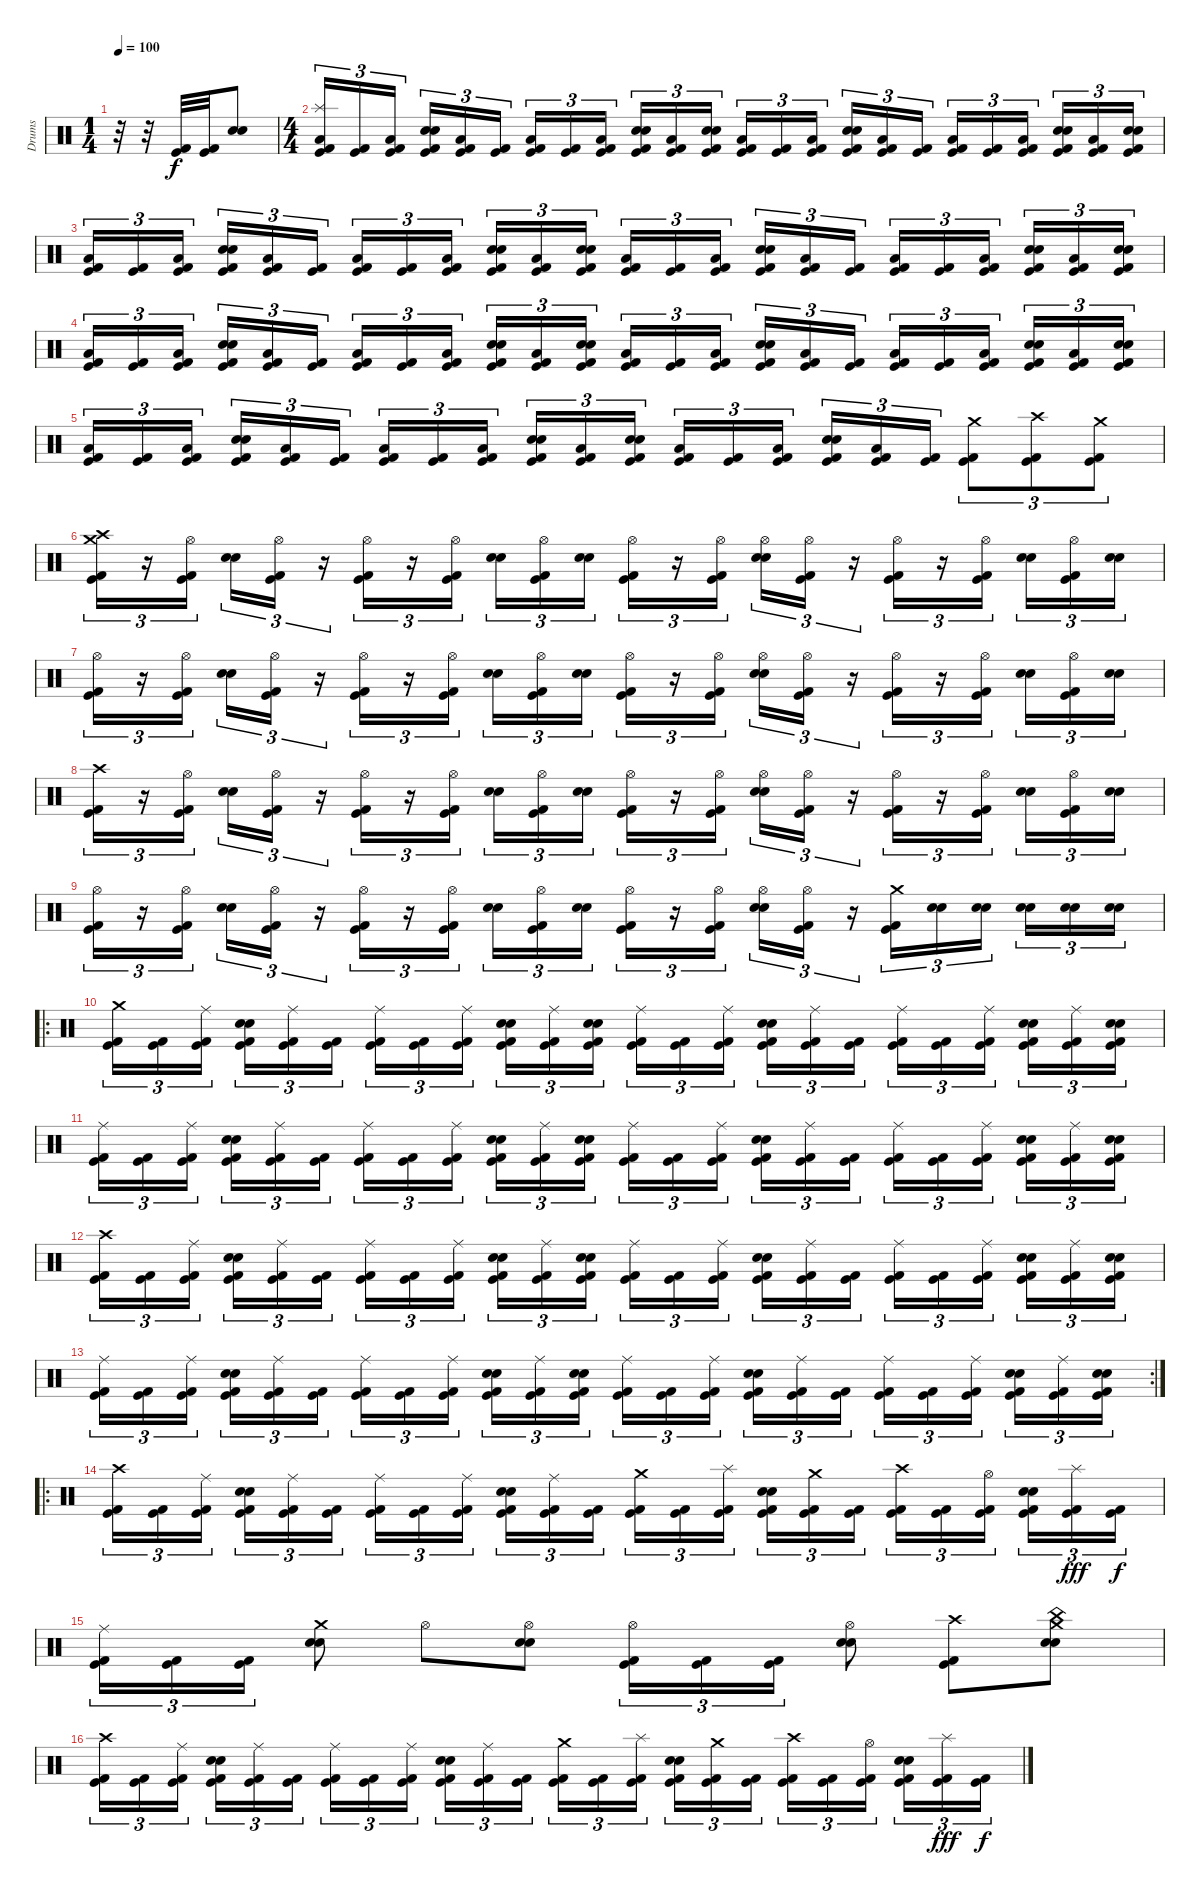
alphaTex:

\track ("Drums" "Drums") {instrument percussion}
\staff {score}
\articulation defaults
\ts (1 4)
\tempo 100
\clef neutral
\ks c
r.32{dy f} r.32 ("Kick (hit)" "Kick (hit) 2").32 ("Kick (hit)" "Kick (hit) 2").32 ("Electric Snare (hit)" "Snare (hit) 2").8 |
\ts (4 4)
("Splash (hit)" "Low Floor Tom (hit)" "Kick (hit)" "Kick (hit) 2").16{tu (3 2)} ("Kick (hit)" "Kick (hit) 2").16{tu (3 2)} ("Low Floor Tom (hit)" "Kick (hit)" "Kick (hit) 2").16{tu (3 2) beam splitsecondary} ("Electric Snare (hit)" "Snare (hit) 2" "Kick (hit)" "Kick (hit) 2").16{tu (3 2)} ("Low Floor Tom (hit)" "Kick (hit)" "Kick (hit) 2").16{tu (3 2)} ("Kick (hit)" "Kick (hit) 2").16{tu (3 2)} ("Low Floor Tom (hit)" "Kick (hit)" "Kick (hit) 2").16{tu (3 2)} ("Kick (hit)" "Kick (hit) 2").16{tu (3 2)} ("Low Floor Tom (hit)" "Kick (hit)" "Kick (hit) 2").16{tu (3 2) beam splitsecondary} ("Electric Snare (hit)" "Snare (hit) 2" "Kick (hit)" "Kick (hit) 2").16{tu (3 2)} ("Low Floor Tom (hit)" "Kick (hit)" "Kick (hit) 2").16{tu (3 2)} ("Electric Snare (hit)" "Snare (hit) 2" "Kick (hit)" "Kick (hit) 2").16{tu (3 2)} ("Low Floor Tom (hit)" "Kick (hit)" "Kick (hit) 2").16{tu (3 2)} ("Kick (hit)" "Kick (hit) 2").16{tu (3 2)} ("Low Floor Tom (hit)" "Kick (hit)" "Kick (hit) 2").16{tu (3 2) beam splitsecondary} ("Electric Snare (hit)" "Snare (hit) 2" "Kick (hit)" "Kick (hit) 2").16{tu (3 2)} ("Low Floor Tom (hit)" "Kick (hit)" "Kick (hit) 2").16{tu (3 2)} ("Kick (hit)" "Kick (hit) 2").16{tu (3 2)} ("Low Floor Tom (hit)" "Kick (hit)" "Kick (hit) 2").16{tu (3 2)} ("Kick (hit)" "Kick (hit) 2").16{tu (3 2)} ("Low Floor Tom (hit)" "Kick (hit)" "Kick (hit) 2").16{tu (3 2) beam splitsecondary} ("Electric Snare (hit)" "Snare (hit) 2" "Kick (hit)" "Kick (hit) 2").16{tu (3 2)} ("Low Floor Tom (hit)" "Kick (hit)" "Kick (hit) 2").16{tu (3 2)} ("Electric Snare (hit)" "Snare (hit) 2" "Kick (hit)" "Kick (hit) 2").16{tu (3 2)} |
("Low Floor Tom (hit)" "Kick (hit)" "Kick (hit) 2").16{tu (3 2)} ("Kick (hit)" "Kick (hit) 2").16{tu (3 2)} ("Low Floor Tom (hit)" "Kick (hit)" "Kick (hit) 2").16{tu (3 2) beam splitsecondary} ("Electric Snare (hit)" "Snare (hit) 2" "Kick (hit)" "Kick (hit) 2").16{tu (3 2)} ("Low Floor Tom (hit)" "Kick (hit)" "Kick (hit) 2").16{tu (3 2)} ("Kick (hit)" "Kick (hit) 2").16{tu (3 2)} ("Low Floor Tom (hit)" "Kick (hit)" "Kick (hit) 2").16{tu (3 2)} ("Kick (hit)" "Kick (hit) 2").16{tu (3 2)} ("Low Floor Tom (hit)" "Kick (hit)" "Kick (hit) 2").16{tu (3 2) beam splitsecondary} ("Electric Snare (hit)" "Snare (hit) 2" "Kick (hit)" "Kick (hit) 2").16{tu (3 2)} ("Low Floor Tom (hit)" "Kick (hit)" "Kick (hit) 2").16{tu (3 2)} ("Electric Snare (hit)" "Snare (hit) 2" "Kick (hit)" "Kick (hit) 2").16{tu (3 2)} ("Low Floor Tom (hit)" "Kick (hit)" "Kick (hit) 2").16{tu (3 2)} ("Kick (hit)" "Kick (hit) 2").16{tu (3 2)} ("Low Floor Tom (hit)" "Kick (hit)" "Kick (hit) 2").16{tu (3 2) beam splitsecondary} ("Electric Snare (hit)" "Snare (hit) 2" "Kick (hit)" "Kick (hit) 2").16{tu (3 2)} ("Low Floor Tom (hit)" "Kick (hit)" "Kick (hit) 2").16{tu (3 2)} ("Kick (hit)" "Kick (hit) 2").16{tu (3 2)} ("Low Floor Tom (hit)" "Kick (hit)" "Kick (hit) 2").16{tu (3 2)} ("Kick (hit)" "Kick (hit) 2").16{tu (3 2)} ("Low Floor Tom (hit)" "Kick (hit)" "Kick (hit) 2").16{tu (3 2) beam splitsecondary} ("Electric Snare (hit)" "Snare (hit) 2" "Kick (hit)" "Kick (hit) 2").16{tu (3 2)} ("Low Floor Tom (hit)" "Kick (hit)" "Kick (hit) 2").16{tu (3 2)} ("Electric Snare (hit)" "Snare (hit) 2" "Kick (hit)" "Kick (hit) 2").16{tu (3 2)} |
("Low Floor Tom (hit)" "Kick (hit)" "Kick (hit) 2").16{tu (3 2)} ("Kick (hit)" "Kick (hit) 2").16{tu (3 2)} ("Low Floor Tom (hit)" "Kick (hit)" "Kick (hit) 2").16{tu (3 2) beam splitsecondary} ("Electric Snare (hit)" "Snare (hit) 2" "Kick (hit)" "Kick (hit) 2").16{tu (3 2)} ("Low Floor Tom (hit)" "Kick (hit)" "Kick (hit) 2").16{tu (3 2)} ("Kick (hit)" "Kick (hit) 2").16{tu (3 2)} ("Low Floor Tom (hit)" "Kick (hit)" "Kick (hit) 2").16{tu (3 2)} ("Kick (hit)" "Kick (hit) 2").16{tu (3 2)} ("Low Floor Tom (hit)" "Kick (hit)" "Kick (hit) 2").16{tu (3 2) beam splitsecondary} ("Electric Snare (hit)" "Snare (hit) 2" "Kick (hit)" "Kick (hit) 2").16{tu (3 2)} ("Low Floor Tom (hit)" "Kick (hit)" "Kick (hit) 2").16{tu (3 2)} ("Electric Snare (hit)" "Snare (hit) 2" "Kick (hit)" "Kick (hit) 2").16{tu (3 2)} ("Low Floor Tom (hit)" "Kick (hit)" "Kick (hit) 2").16{tu (3 2)} ("Kick (hit)" "Kick (hit) 2").16{tu (3 2)} ("Low Floor Tom (hit)" "Kick (hit)" "Kick (hit) 2").16{tu (3 2) beam splitsecondary} ("Electric Snare (hit)" "Snare (hit) 2" "Kick (hit)" "Kick (hit) 2").16{tu (3 2)} ("Low Floor Tom (hit)" "Kick (hit)" "Kick (hit) 2").16{tu (3 2)} ("Kick (hit)" "Kick (hit) 2").16{tu (3 2)} ("Low Floor Tom (hit)" "Kick (hit)" "Kick (hit) 2").16{tu (3 2)} ("Kick (hit)" "Kick (hit) 2").16{tu (3 2)} ("Low Floor Tom (hit)" "Kick (hit)" "Kick (hit) 2").16{tu (3 2) beam splitsecondary} ("Electric Snare (hit)" "Snare (hit) 2" "Kick (hit)" "Kick (hit) 2").16{tu (3 2)} ("Low Floor Tom (hit)" "Kick (hit)" "Kick (hit) 2").16{tu (3 2)} ("Electric Snare (hit)" "Snare (hit) 2" "Kick (hit)" "Kick (hit) 2").16{tu (3 2)} |
("Low Floor Tom (hit)" "Kick (hit)" "Kick (hit) 2").16{tu (3 2)} ("Kick (hit)" "Kick (hit) 2").16{tu (3 2)} ("Low Floor Tom (hit)" "Kick (hit)" "Kick (hit) 2").16{tu (3 2) beam splitsecondary} ("Electric Snare (hit)" "Snare (hit) 2" "Kick (hit)" "Kick (hit) 2").16{tu (3 2)} ("Low Floor Tom (hit)" "Kick (hit)" "Kick (hit) 2").16{tu (3 2)} ("Kick (hit)" "Kick (hit) 2").16{tu (3 2)} ("Low Floor Tom (hit)" "Kick (hit)" "Kick (hit) 2").16{tu (3 2)} ("Kick (hit)" "Kick (hit) 2").16{tu (3 2)} ("Low Floor Tom (hit)" "Kick (hit)" "Kick (hit) 2").16{tu (3 2) beam splitsecondary} ("Electric Snare (hit)" "Snare (hit) 2" "Kick (hit)" "Kick (hit) 2").16{tu (3 2)} ("Low Floor Tom (hit)" "Kick (hit)" "Kick (hit) 2").16{tu (3 2)} ("Electric Snare (hit)" "Snare (hit) 2" "Kick (hit)" "Kick (hit) 2").16{tu (3 2)} ("Low Floor Tom (hit)" "Kick (hit)" "Kick (hit) 2").16{tu (3 2)} ("Kick (hit)" "Kick (hit) 2").16{tu (3 2)} ("Low Floor Tom (hit)" "Kick (hit)" "Kick (hit) 2").16{tu (3 2) beam splitsecondary} ("Electric Snare (hit)" "Snare (hit) 2" "Kick (hit)" "Kick (hit) 2").16{tu (3 2)} ("Low Floor Tom (hit)" "Kick (hit)" "Kick (hit) 2").16{tu (3 2)} ("Kick (hit)" "Kick (hit) 2").16{tu (3 2)} ("Crash medium (hit)" "Kick (hit)" "Kick (hit) 2").8{tu (3 2)} ("Crash high (hit)" "Kick (hit)" "Kick (hit) 2").8{tu (3 2)} ("Crash medium (hit)" "Kick (hit)" "Kick (hit) 2").8{tu (3 2)} |
("Crash high (hit)" "Crash medium (hit)" "Kick (hit)" "Kick (hit) 2").16{tu (3 2)} r.16{tu (3 2)} ("Hi-Hat (open)" "Kick (hit)" "Kick (hit) 2").16{tu (3 2) beam splitsecondary} ("Electric Snare (hit)" "Snare (hit) 2").16{tu (3 2)} ("Hi-Hat (open)" "Kick (hit)" "Kick (hit) 2").16{tu (3 2)} r.16{tu (3 2)} ("Hi-Hat (open)" "Kick (hit)" "Kick (hit) 2").16{tu (3 2)} r.16{tu (3 2)} ("Hi-Hat (open)" "Kick (hit)" "Kick (hit) 2").16{tu (3 2) beam splitsecondary} ("Electric Snare (hit)" "Snare (hit) 2").16{tu (3 2)} ("Hi-Hat (open)" "Kick (hit)" "Kick (hit) 2").16{tu (3 2)} ("Electric Snare (hit)" "Snare (hit) 2").16{tu (3 2)} ("Hi-Hat (open)" "Kick (hit)" "Kick (hit) 2").16{tu (3 2)} r.16{tu (3 2)} ("Hi-Hat (open)" "Kick (hit) 2" "Kick (hit)").16{tu (3 2) beam splitsecondary} ("Hi-Hat (open)" "Electric Snare (hit)" "Snare (hit) 2").16{tu (3 2)} ("Hi-Hat (open)" "Kick (hit)" "Kick (hit) 2").16{tu (3 2)} r.16{tu (3 2)} ("Hi-Hat (open)" "Kick (hit)" "Kick (hit) 2").16{tu (3 2)} r.16{tu (3 2)} ("Hi-Hat (open)" "Kick (hit)" "Kick (hit) 2").16{tu (3 2) beam splitsecondary} ("Electric Snare (hit)" "Snare (hit) 2").16{tu (3 2)} ("Hi-Hat (open)" "Kick (hit)" "Kick (hit) 2").16{tu (3 2)} ("Electric Snare (hit)" "Snare (hit) 2").16{tu (3 2)} |
("Hi-Hat (open)" "Kick (hit)" "Kick (hit) 2").16{tu (3 2)} r.16{tu (3 2)} ("Hi-Hat (open)" "Kick (hit)" "Kick (hit) 2").16{tu (3 2) beam splitsecondary} ("Electric Snare (hit)" "Snare (hit) 2").16{tu (3 2)} ("Hi-Hat (open)" "Kick (hit)" "Kick (hit) 2").16{tu (3 2)} r.16{tu (3 2)} ("Hi-Hat (open)" "Kick (hit)" "Kick (hit) 2").16{tu (3 2)} r.16{tu (3 2)} ("Hi-Hat (open)" "Kick (hit)" "Kick (hit) 2").16{tu (3 2) beam splitsecondary} ("Electric Snare (hit)" "Snare (hit) 2").16{tu (3 2)} ("Hi-Hat (open)" "Kick (hit)" "Kick (hit) 2").16{tu (3 2)} ("Electric Snare (hit)" "Snare (hit) 2").16{tu (3 2)} ("Hi-Hat (open)" "Kick (hit)" "Kick (hit) 2").16{tu (3 2)} r.16{tu (3 2)} ("Hi-Hat (open)" "Kick (hit) 2" "Kick (hit)").16{tu (3 2) beam splitsecondary} ("Hi-Hat (open)" "Electric Snare (hit)" "Snare (hit) 2").16{tu (3 2)} ("Hi-Hat (open)" "Kick (hit)" "Kick (hit) 2").16{tu (3 2)} r.16{tu (3 2)} ("Hi-Hat (open)" "Kick (hit)" "Kick (hit) 2").16{tu (3 2)} r.16{tu (3 2)} ("Hi-Hat (open)" "Kick (hit)" "Kick (hit) 2").16{tu (3 2) beam splitsecondary} ("Electric Snare (hit)" "Snare (hit) 2").16{tu (3 2)} ("Hi-Hat (open)" "Kick (hit)" "Kick (hit) 2").16{tu (3 2)} ("Electric Snare (hit)" "Snare (hit) 2").16{tu (3 2)} |
("Crash high (hit)" "Kick (hit)" "Kick (hit) 2").16{tu (3 2)} r.16{tu (3 2)} ("Hi-Hat (open)" "Kick (hit)" "Kick (hit) 2").16{tu (3 2) beam splitsecondary} ("Electric Snare (hit)" "Snare (hit) 2").16{tu (3 2)} ("Hi-Hat (open)" "Kick (hit)" "Kick (hit) 2").16{tu (3 2)} r.16{tu (3 2)} ("Hi-Hat (open)" "Kick (hit)" "Kick (hit) 2").16{tu (3 2)} r.16{tu (3 2)} ("Hi-Hat (open)" "Kick (hit)" "Kick (hit) 2").16{tu (3 2) beam splitsecondary} ("Electric Snare (hit)" "Snare (hit) 2").16{tu (3 2)} ("Hi-Hat (open)" "Kick (hit)" "Kick (hit) 2").16{tu (3 2)} ("Electric Snare (hit)" "Snare (hit) 2").16{tu (3 2)} ("Hi-Hat (open)" "Kick (hit)" "Kick (hit) 2").16{tu (3 2)} r.16{tu (3 2)} ("Hi-Hat (open)" "Kick (hit) 2" "Kick (hit)").16{tu (3 2) beam splitsecondary} ("Hi-Hat (open)" "Electric Snare (hit)" "Snare (hit) 2").16{tu (3 2)} ("Hi-Hat (open)" "Kick (hit)" "Kick (hit) 2").16{tu (3 2)} r.16{tu (3 2)} ("Hi-Hat (open)" "Kick (hit)" "Kick (hit) 2").16{tu (3 2)} r.16{tu (3 2)} ("Hi-Hat (open)" "Kick (hit)" "Kick (hit) 2").16{tu (3 2) beam splitsecondary} ("Electric Snare (hit)" "Snare (hit) 2").16{tu (3 2)} ("Hi-Hat (open)" "Kick (hit)" "Kick (hit) 2").16{tu (3 2)} ("Electric Snare (hit)" "Snare (hit) 2").16{tu (3 2)} |
("Hi-Hat (open)" "Kick (hit)" "Kick (hit) 2").16{tu (3 2)} r.16{tu (3 2)} ("Hi-Hat (open)" "Kick (hit)" "Kick (hit) 2").16{tu (3 2) beam splitsecondary} ("Electric Snare (hit)" "Snare (hit) 2").16{tu (3 2)} ("Hi-Hat (open)" "Kick (hit)" "Kick (hit) 2").16{tu (3 2)} r.16{tu (3 2)} ("Hi-Hat (open)" "Kick (hit)" "Kick (hit) 2").16{tu (3 2)} r.16{tu (3 2)} ("Hi-Hat (open)" "Kick (hit)" "Kick (hit) 2").16{tu (3 2) beam splitsecondary} ("Electric Snare (hit)" "Snare (hit) 2").16{tu (3 2)} ("Hi-Hat (open)" "Kick (hit)" "Kick (hit) 2").16{tu (3 2)} ("Electric Snare (hit)" "Snare (hit) 2").16{tu (3 2)} ("Hi-Hat (open)" "Kick (hit)" "Kick (hit) 2").16{tu (3 2)} r.16{tu (3 2)} ("Hi-Hat (open)" "Kick (hit) 2" "Kick (hit)").16{tu (3 2) beam splitsecondary} ("Hi-Hat (open)" "Electric Snare (hit)" "Snare (hit) 2").16{tu (3 2)} ("Hi-Hat (open)" "Kick (hit)" "Kick (hit) 2").16{tu (3 2)} r.16{tu (3 2)} ("Crash medium (hit)" "Kick (hit)" "Kick (hit) 2").16{tu (3 2)} ("Electric Snare (hit)" "Snare (hit) 2").16{tu (3 2)} ("Electric Snare (hit)" "Snare (hit) 2").16{tu (3 2) beam splitsecondary} ("Electric Snare (hit)" "Snare (hit) 2").16{tu (3 2)} ("Electric Snare (hit)" "Snare (hit) 2").16{tu (3 2)} ("Electric Snare (hit)" "Snare (hit) 2").16{tu (3 2)} |
\ro
("Crash medium (hit)" "Kick (hit)" "Kick (hit) 2").16{tu (3 2)} ("Kick (hit)" "Kick (hit) 2").16{tu (3 2)} ("Ride (middle)" "Kick (hit)" "Kick (hit) 2").16{tu (3 2) beam splitsecondary} ("Electric Snare (hit)" "Snare (hit) 2" "Kick (hit)" "Kick (hit) 2").16{tu (3 2)} ("Ride (middle)" "Kick (hit)" "Kick (hit) 2").16{tu (3 2)} ("Kick (hit)" "Kick (hit) 2").16{tu (3 2)} ("Ride (middle)" "Kick (hit)" "Kick (hit) 2").16{tu (3 2)} ("Kick (hit)" "Kick (hit) 2").16{tu (3 2)} ("Ride (middle)" "Kick (hit)" "Kick (hit) 2").16{tu (3 2) beam splitsecondary} ("Electric Snare (hit)" "Snare (hit) 2" "Kick (hit)" "Kick (hit) 2").16{tu (3 2)} ("Ride (middle)" "Kick (hit)" "Kick (hit) 2").16{tu (3 2)} ("Electric Snare (hit)" "Snare (hit) 2" "Kick (hit)" "Kick (hit) 2").16{tu (3 2)} ("Ride (middle)" "Kick (hit)" "Kick (hit) 2").16{tu (3 2)} ("Kick (hit)" "Kick (hit) 2").16{tu (3 2)} ("Ride (middle)" "Kick (hit)" "Kick (hit) 2").16{tu (3 2) beam splitsecondary} ("Electric Snare (hit)" "Snare (hit) 2" "Kick (hit)" "Kick (hit) 2").16{tu (3 2)} ("Ride (middle)" "Kick (hit)" "Kick (hit) 2").16{tu (3 2)} ("Kick (hit)" "Kick (hit) 2").16{tu (3 2)} ("Ride (middle)" "Kick (hit)" "Kick (hit) 2").16{tu (3 2)} ("Kick (hit)" "Kick (hit) 2").16{tu (3 2)} ("Ride (middle)" "Kick (hit)" "Kick (hit) 2").16{tu (3 2) beam splitsecondary} ("Electric Snare (hit)" "Snare (hit) 2" "Kick (hit)" "Kick (hit) 2").16{tu (3 2)} ("Ride (middle)" "Kick (hit)" "Kick (hit) 2").16{tu (3 2)} ("Electric Snare (hit)" "Snare (hit) 2" "Kick (hit)" "Kick (hit) 2").16{tu (3 2)} |
("Ride (middle)" "Kick (hit)" "Kick (hit) 2").16{tu (3 2)} ("Kick (hit)" "Kick (hit) 2").16{tu (3 2)} ("Ride (middle)" "Kick (hit)" "Kick (hit) 2").16{tu (3 2) beam splitsecondary} ("Electric Snare (hit)" "Snare (hit) 2" "Kick (hit)" "Kick (hit) 2").16{tu (3 2)} ("Ride (middle)" "Kick (hit)" "Kick (hit) 2").16{tu (3 2)} ("Kick (hit)" "Kick (hit) 2").16{tu (3 2)} ("Ride (middle)" "Kick (hit)" "Kick (hit) 2").16{tu (3 2)} ("Kick (hit)" "Kick (hit) 2").16{tu (3 2)} ("Ride (middle)" "Kick (hit)" "Kick (hit) 2").16{tu (3 2) beam splitsecondary} ("Electric Snare (hit)" "Snare (hit) 2" "Kick (hit)" "Kick (hit) 2").16{tu (3 2)} ("Ride (middle)" "Kick (hit)" "Kick (hit) 2").16{tu (3 2)} ("Electric Snare (hit)" "Snare (hit) 2" "Kick (hit)" "Kick (hit) 2").16{tu (3 2)} ("Ride (middle)" "Kick (hit)" "Kick (hit) 2").16{tu (3 2)} ("Kick (hit)" "Kick (hit) 2").16{tu (3 2)} ("Ride (middle)" "Kick (hit)" "Kick (hit) 2").16{tu (3 2) beam splitsecondary} ("Electric Snare (hit)" "Snare (hit) 2" "Kick (hit)" "Kick (hit) 2").16{tu (3 2)} ("Ride (middle)" "Kick (hit)" "Kick (hit) 2").16{tu (3 2)} ("Kick (hit)" "Kick (hit) 2").16{tu (3 2)} ("Ride (middle)" "Kick (hit)" "Kick (hit) 2").16{tu (3 2)} ("Kick (hit)" "Kick (hit) 2").16{tu (3 2)} ("Ride (middle)" "Kick (hit)" "Kick (hit) 2").16{tu (3 2) beam splitsecondary} ("Electric Snare (hit)" "Snare (hit) 2" "Kick (hit)" "Kick (hit) 2").16{tu (3 2)} ("Ride (middle)" "Kick (hit)" "Kick (hit) 2").16{tu (3 2)} ("Electric Snare (hit)" "Snare (hit) 2" "Kick (hit)" "Kick (hit) 2").16{tu (3 2)} |
("Crash high (hit)" "Kick (hit)" "Kick (hit) 2").16{tu (3 2)} ("Kick (hit)" "Kick (hit) 2").16{tu (3 2)} ("Ride (middle)" "Kick (hit)" "Kick (hit) 2").16{tu (3 2) beam splitsecondary} ("Electric Snare (hit)" "Snare (hit) 2" "Kick (hit)" "Kick (hit) 2").16{tu (3 2)} ("Ride (middle)" "Kick (hit)" "Kick (hit) 2").16{tu (3 2)} ("Kick (hit)" "Kick (hit) 2").16{tu (3 2)} ("Ride (middle)" "Kick (hit)" "Kick (hit) 2").16{tu (3 2)} ("Kick (hit)" "Kick (hit) 2").16{tu (3 2)} ("Ride (middle)" "Kick (hit)" "Kick (hit) 2").16{tu (3 2) beam splitsecondary} ("Electric Snare (hit)" "Snare (hit) 2" "Kick (hit)" "Kick (hit) 2").16{tu (3 2)} ("Ride (middle)" "Kick (hit)" "Kick (hit) 2").16{tu (3 2)} ("Electric Snare (hit)" "Snare (hit) 2" "Kick (hit)" "Kick (hit) 2").16{tu (3 2)} ("Ride (middle)" "Kick (hit)" "Kick (hit) 2").16{tu (3 2)} ("Kick (hit)" "Kick (hit) 2").16{tu (3 2)} ("Ride (middle)" "Kick (hit)" "Kick (hit) 2").16{tu (3 2) beam splitsecondary} ("Electric Snare (hit)" "Snare (hit) 2" "Kick (hit)" "Kick (hit) 2").16{tu (3 2)} ("Ride (middle)" "Kick (hit)" "Kick (hit) 2").16{tu (3 2)} ("Kick (hit)" "Kick (hit) 2").16{tu (3 2)} ("Ride (middle)" "Kick (hit)" "Kick (hit) 2").16{tu (3 2)} ("Kick (hit)" "Kick (hit) 2").16{tu (3 2)} ("Ride (middle)" "Kick (hit)" "Kick (hit) 2").16{tu (3 2) beam splitsecondary} ("Electric Snare (hit)" "Snare (hit) 2" "Kick (hit)" "Kick (hit) 2").16{tu (3 2)} ("Ride (middle)" "Kick (hit)" "Kick (hit) 2").16{tu (3 2)} ("Electric Snare (hit)" "Snare (hit) 2" "Kick (hit)" "Kick (hit) 2").16{tu (3 2)} |
\rc 2
("Ride (middle)" "Kick (hit)" "Kick (hit) 2").16{tu (3 2)} ("Kick (hit)" "Kick (hit) 2").16{tu (3 2)} ("Ride (middle)" "Kick (hit)" "Kick (hit) 2").16{tu (3 2) beam splitsecondary} ("Electric Snare (hit)" "Snare (hit) 2" "Kick (hit)" "Kick (hit) 2").16{tu (3 2)} ("Ride (middle)" "Kick (hit)" "Kick (hit) 2").16{tu (3 2)} ("Kick (hit)" "Kick (hit) 2").16{tu (3 2)} ("Ride (middle)" "Kick (hit)" "Kick (hit) 2").16{tu (3 2)} ("Kick (hit)" "Kick (hit) 2").16{tu (3 2)} ("Ride (middle)" "Kick (hit)" "Kick (hit) 2").16{tu (3 2) beam splitsecondary} ("Electric Snare (hit)" "Snare (hit) 2" "Kick (hit)" "Kick (hit) 2").16{tu (3 2)} ("Ride (middle)" "Kick (hit)" "Kick (hit) 2").16{tu (3 2)} ("Electric Snare (hit)" "Snare (hit) 2" "Kick (hit)" "Kick (hit) 2").16{tu (3 2)} ("Ride (middle)" "Kick (hit)" "Kick (hit) 2").16{tu (3 2)} ("Kick (hit)" "Kick (hit) 2").16{tu (3 2)} ("Ride (middle)" "Kick (hit)" "Kick (hit) 2").16{tu (3 2) beam splitsecondary} ("Electric Snare (hit)" "Snare (hit) 2" "Kick (hit)" "Kick (hit) 2").16{tu (3 2)} ("Ride (middle)" "Kick (hit)" "Kick (hit) 2").16{tu (3 2)} ("Kick (hit)" "Kick (hit) 2").16{tu (3 2)} ("Ride (middle)" "Kick (hit)" "Kick (hit) 2").16{tu (3 2)} ("Kick (hit)" "Kick (hit) 2").16{tu (3 2)} ("Ride (middle)" "Kick (hit)" "Kick (hit) 2").16{tu (3 2) beam splitsecondary} ("Electric Snare (hit)" "Snare (hit) 2" "Kick (hit)" "Kick (hit) 2").16{tu (3 2)} ("Ride (middle)" "Kick (hit)" "Kick (hit) 2").16{tu (3 2)} ("Electric Snare (hit)" "Snare (hit) 2" "Kick (hit)" "Kick (hit) 2").16{tu (3 2)} |
\ro
("Crash high (hit)" "Kick (hit)" "Kick (hit) 2").16{tu (3 2)} ("Kick (hit)" "Kick (hit) 2").16{tu (3 2)} ("Ride (middle)" "Kick (hit)" "Kick (hit) 2").16{tu (3 2) beam splitsecondary} ("Electric Snare (hit)" "Snare (hit) 2" "Kick (hit)" "Kick (hit) 2").16{tu (3 2)} ("Ride (middle)" "Kick (hit)" "Kick (hit) 2").16{tu (3 2)} ("Kick (hit)" "Kick (hit) 2").16{tu (3 2)} ("Ride (middle)" "Kick (hit)" "Kick (hit) 2").16{tu (3 2)} ("Kick (hit)" "Kick (hit) 2").16{tu (3 2)} ("Ride (middle)" "Kick (hit)" "Kick (hit) 2").16{tu (3 2) beam splitsecondary} ("Electric Snare (hit)" "Snare (hit) 2" "Kick (hit)" "Kick (hit) 2").16{tu (3 2)} ("Ride (middle)" "Kick (hit)" "Kick (hit) 2").16{tu (3 2)} ("Kick (hit)" "Kick (hit) 2").16{tu (3 2)} ("Crash medium (hit)" "Kick (hit)" "Kick (hit) 2").16{tu (3 2)} ("Kick (hit)" "Kick (hit) 2").16{tu (3 2)} ("Splash (hit)" "Kick (hit)" "Kick (hit) 2").16{tu (3 2) beam splitsecondary} ("Electric Snare (hit)" "Snare (hit) 2" "Kick (hit)" "Kick (hit) 2").16{tu (3 2)} ("Crash medium (hit)" "Kick (hit)" "Kick (hit) 2").16{tu (3 2)} ("Kick (hit)" "Kick (hit) 2").16{tu (3 2)} ("Crash high (hit)" "Kick (hit)" "Kick (hit) 2").16{tu (3 2)} ("Kick (hit)" "Kick (hit) 2").16{tu (3 2)} ("Hi-Hat (open)" "Kick (hit)" "Kick (hit) 2").16{tu (3 2) beam splitsecondary} ("Electric Snare (hit)" "Snare (hit) 2" "Kick (hit)" "Kick (hit) 2").16{tu (3 2)} ("Splash (hit)" "Kick (hit)" "Kick (hit) 2").16{tu (3 2) dy fff} ("Kick (hit)" "Kick (hit) 2").16{tu (3 2) dy f} |
("Ride (middle)" "Kick (hit)" "Kick (hit) 2").16{tu (3 2)} ("Kick (hit)" "Kick (hit) 2").16{tu (3 2)} ("Kick (hit)" "Kick (hit) 2").16{tu (3 2)} ("Crash medium (hit)" "Electric Snare (hit)" "Snare (hit) 2").8 "Hi-Hat (open)".8 ("Hi-Hat (open)" "Electric Snare (hit)" "Snare (hit) 2").8 ("Hi-Hat (open)" "Kick (hit)" "Kick (hit) 2").16{tu (3 2)} ("Kick (hit)" "Kick (hit) 2").16{tu (3 2)} ("Kick (hit)" "Kick (hit) 2").16{tu (3 2)} ("Hi-Hat (open)" "Electric Snare (hit)" "Snare (hit) 2").8 ("Crash high (hit)" "Kick (hit)" "Kick (hit) 2").8 ("Crash medium (hit)" "China (hit)" "Electric Snare (hit)" "Snare (hit) 2").8 |
("Crash high (hit)" "Kick (hit)" "Kick (hit) 2").16{tu (3 2)} ("Kick (hit)" "Kick (hit) 2").16{tu (3 2)} ("Ride (middle)" "Kick (hit)" "Kick (hit) 2").16{tu (3 2) beam splitsecondary} ("Electric Snare (hit)" "Snare (hit) 2" "Kick (hit)" "Kick (hit) 2").16{tu (3 2)} ("Ride (middle)" "Kick (hit)" "Kick (hit) 2").16{tu (3 2)} ("Kick (hit)" "Kick (hit) 2").16{tu (3 2)} ("Ride (middle)" "Kick (hit)" "Kick (hit) 2").16{tu (3 2)} ("Kick (hit)" "Kick (hit) 2").16{tu (3 2)} ("Ride (middle)" "Kick (hit)" "Kick (hit) 2").16{tu (3 2) beam splitsecondary} ("Electric Snare (hit)" "Snare (hit) 2" "Kick (hit)" "Kick (hit) 2").16{tu (3 2)} ("Ride (middle)" "Kick (hit)" "Kick (hit) 2").16{tu (3 2)} ("Kick (hit)" "Kick (hit) 2").16{tu (3 2)} ("Crash medium (hit)" "Kick (hit)" "Kick (hit) 2").16{tu (3 2)} ("Kick (hit)" "Kick (hit) 2").16{tu (3 2)} ("Splash (hit)" "Kick (hit)" "Kick (hit) 2").16{tu (3 2) beam splitsecondary} ("Electric Snare (hit)" "Snare (hit) 2" "Kick (hit)" "Kick (hit) 2").16{tu (3 2)} ("Crash medium (hit)" "Kick (hit)" "Kick (hit) 2").16{tu (3 2)} ("Kick (hit)" "Kick (hit) 2").16{tu (3 2)} ("Crash high (hit)" "Kick (hit)" "Kick (hit) 2").16{tu (3 2)} ("Kick (hit)" "Kick (hit) 2").16{tu (3 2)} ("Hi-Hat (open)" "Kick (hit)" "Kick (hit) 2").16{tu (3 2) beam splitsecondary} ("Electric Snare (hit)" "Snare (hit) 2" "Kick (hit)" "Kick (hit) 2").16{tu (3 2)} ("Splash (hit)" "Kick (hit)" "Kick (hit) 2").16{tu (3 2) dy fff} ("Kick (hit)" "Kick (hit) 2").16{tu (3 2) dy f}
